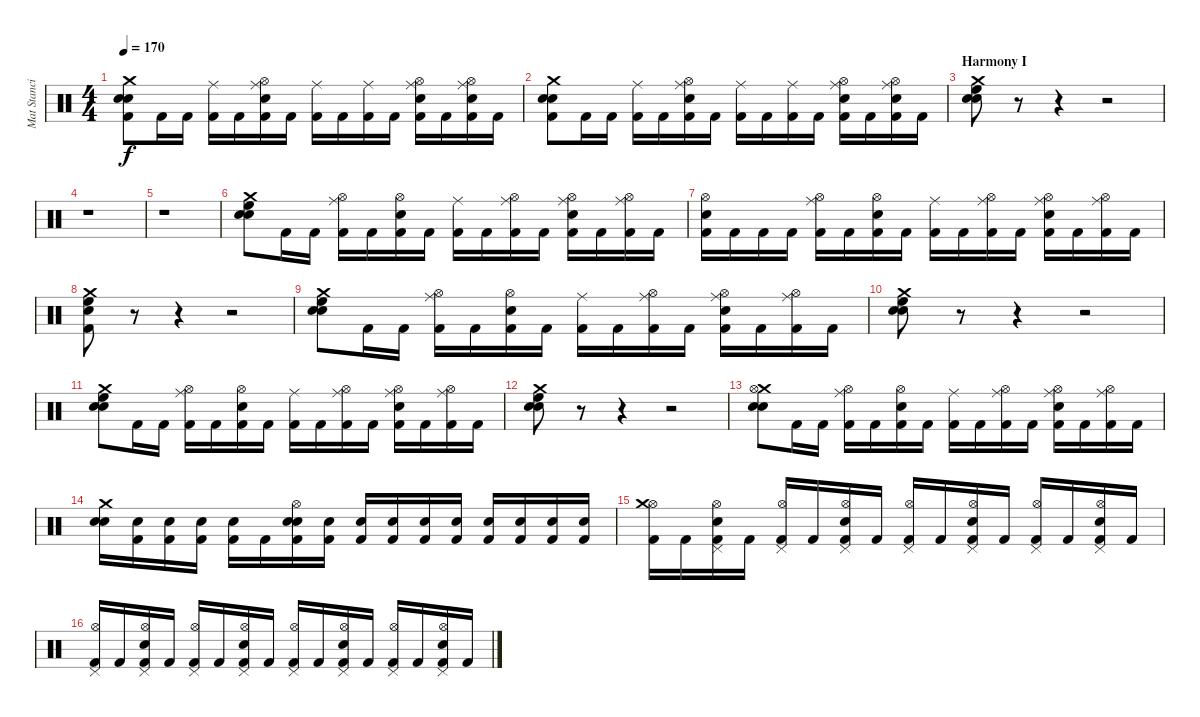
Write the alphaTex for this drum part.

\track ("Mat Stancioiu" "Mat Stanci") {instrument percussion}
\staff {score}
\articulation defaults
\ts (4 4)
\tempo 170
\clef neutral
\ks c
("Crash medium (hit)" "Kick (hit) 2" "Snare (hit)" "Electric Snare (hit)").8{dy f} "Kick (hit) 2".16 "Kick (hit) 2".16 ("Kick (hit) 2" "Ride (middle)").16 "Kick (hit) 2".16 ("Electric Snare (hit)" "Hi-Hat (open)" "Kick (hit) 2" "Ride (middle)").16 "Kick (hit) 2".16 ("Kick (hit) 2" "Ride (middle)").16 "Kick (hit) 2".16 ("Kick (hit) 2" "Ride (middle)").16 "Kick (hit) 2".16 ("Electric Snare (hit)" "Hi-Hat (open)" "Kick (hit) 2" "Ride (middle)").16 "Kick (hit) 2".16 ("Electric Snare (hit)" "Hi-Hat (open)" "Kick (hit) 2" "Ride (middle)").16 "Kick (hit) 2".16 |
("Crash medium (hit)" "Kick (hit) 2" "Snare (hit)" "Electric Snare (hit)").8 "Kick (hit) 2".16 "Kick (hit) 2".16 ("Kick (hit) 2" "Ride (middle)").16 "Kick (hit) 2".16 ("Electric Snare (hit)" "Hi-Hat (open)" "Kick (hit) 2" "Ride (middle)").16 "Kick (hit) 2".16 ("Kick (hit) 2" "Ride (middle)").16 "Kick (hit) 2".16 ("Kick (hit) 2" "Ride (middle)").16 "Kick (hit) 2".16 ("Electric Snare (hit)" "Hi-Hat (open)" "Kick (hit) 2" "Ride (middle)").16 "Kick (hit) 2".16 ("Electric Snare (hit)" "Hi-Hat (open)" "Kick (hit) 2" "Ride (middle)").16 "Kick (hit) 2".16 |
\section ("" "Harmony I")
("Crash medium (hit)" "High Floor Tom (hit)" "Snare (hit)" "Electric Snare (hit)").8 r.8 r.4 r.2 |
r.1 |
r.1 |
("Crash medium (hit)" "High Floor Tom (hit)" "Snare (hit)" "Electric Snare (hit)").8 "Kick (hit) 2".16 "Kick (hit) 2".16 ("Kick (hit) 2" "Hi-Hat (open)" "Ride (middle)").16 "Kick (hit) 2".16 ("Electric Snare (hit)" "Hi-Hat (open)" "Kick (hit) 2").16 "Kick (hit) 2".16 ("Kick (hit) 2" "Ride (middle)").16 "Kick (hit) 2".16 ("Kick (hit) 2" "Hi-Hat (open)" "Ride (middle)").16 "Kick (hit) 2".16 ("Electric Snare (hit)" "Hi-Hat (open)" "Kick (hit) 2" "Ride (middle)").16 "Kick (hit) 2".16 ("Kick (hit) 2" "Hi-Hat (open)" "Ride (middle)").16 "Kick (hit) 2".16 |
("Electric Snare (hit)" "Hi-Hat (open)" "Kick (hit) 2").16 "Kick (hit) 2".16 "Kick (hit) 2".16 "Kick (hit) 2".16 ("Kick (hit) 2" "Hi-Hat (open)" "Ride (middle)").16 "Kick (hit) 2".16 ("Electric Snare (hit)" "Hi-Hat (open)" "Kick (hit) 2").16 "Kick (hit) 2".16 ("Kick (hit) 2" "Ride (middle)").16 "Kick (hit) 2".16 ("Kick (hit) 2" "Hi-Hat (open)" "Ride (middle)").16 "Kick (hit) 2".16 ("Electric Snare (hit)" "Hi-Hat (open)" "Kick (hit) 2" "Ride (middle)").16 "Kick (hit) 2".16 ("Kick (hit) 2" "Hi-Hat (open)" "Ride (middle)").16 "Kick (hit) 2".16 |
("Electric Snare (hit)" "High Floor Tom (hit)" "Kick (hit) 2" "Crash medium (hit)").8 r.8 r.4 r.2 |
("Crash medium (hit)" "High Floor Tom (hit)" "Snare (hit)" "Electric Snare (hit)").8 "Kick (hit) 2".16 "Kick (hit) 2".16 ("Kick (hit) 2" "Hi-Hat (open)" "Ride (middle)").16 "Kick (hit) 2".16 ("Electric Snare (hit)" "Hi-Hat (open)" "Kick (hit) 2").16 "Kick (hit) 2".16 ("Kick (hit) 2" "Ride (middle)").16 "Kick (hit) 2".16 ("Kick (hit) 2" "Hi-Hat (open)" "Ride (middle)").16 "Kick (hit) 2".16 ("Electric Snare (hit)" "Hi-Hat (open)" "Kick (hit) 2" "Ride (middle)").16 "Kick (hit) 2".16 ("Kick (hit) 2" "Hi-Hat (open)" "Ride (middle)").16 "Kick (hit) 2".16 |
("Crash medium (hit)" "High Floor Tom (hit)" "Snare (hit)" "Electric Snare (hit)").8 r.8 r.4 r.2 |
("Crash medium (hit)" "High Floor Tom (hit)" "Snare (hit)" "Electric Snare (hit)").8 "Kick (hit) 2".16 "Kick (hit) 2".16 ("Kick (hit) 2" "Hi-Hat (open)" "Ride (middle)").16 "Kick (hit) 2".16 ("Electric Snare (hit)" "Hi-Hat (open)" "Kick (hit) 2").16 "Kick (hit) 2".16 ("Kick (hit) 2" "Ride (middle)").16 "Kick (hit) 2".16 ("Kick (hit) 2" "Hi-Hat (open)" "Ride (middle)").16 "Kick (hit) 2".16 ("Electric Snare (hit)" "Hi-Hat (open)" "Kick (hit) 2" "Ride (middle)").16 "Kick (hit) 2".16 ("Kick (hit) 2" "Hi-Hat (open)" "Ride (middle)").16 "Kick (hit) 2".16 |
("Crash medium (hit)" "High Floor Tom (hit)" "Snare (hit)" "Electric Snare (hit)").8 r.8 r.4 r.2 |
("Crash medium (hit)" "Hi-Hat (open)" "Snare (hit)" "Electric Snare (hit)").8 "Kick (hit) 2".16 "Kick (hit) 2".16 ("Kick (hit) 2" "Hi-Hat (open)" "Ride (middle)").16 "Kick (hit) 2".16 ("Electric Snare (hit)" "Hi-Hat (open)" "Kick (hit) 2").16 "Kick (hit) 2".16 ("Kick (hit) 2" "Ride (middle)").16 "Kick (hit) 2".16 ("Kick (hit) 2" "Hi-Hat (open)" "Ride (middle)").16 "Kick (hit) 2".16 ("Electric Snare (hit)" "Hi-Hat (open)" "Kick (hit) 2" "Ride (middle)").16 "Kick (hit) 2".16 ("Kick (hit) 2" "Hi-Hat (open)" "Ride (middle)").16 "Kick (hit) 2".16 |
("Electric Snare (hit)" "Crash medium (hit)" "Snare (hit)").16 ("Electric Snare (hit)" "Kick (hit) 2").16 ("Electric Snare (hit)" "Kick (hit) 2").16 ("Electric Snare (hit)" "Kick (hit) 2").16 ("Electric Snare (hit)" "Kick (hit) 2").16 "Kick (hit) 2".16 ("Electric Snare (hit)" "Kick (hit) 2" "Hi-Hat (open)" "Snare (hit)").16 ("Electric Snare (hit)" "Kick (hit) 2").16 ("Electric Snare (hit)" "Kick (hit) 2").16 ("Electric Snare (hit)" "Kick (hit) 2").16 ("Electric Snare (hit)" "Kick (hit) 2").16 ("Electric Snare (hit)" "Kick (hit) 2").16 ("Electric Snare (hit)" "Kick (hit) 2").16 ("Electric Snare (hit)" "Kick (hit) 2").16 ("Electric Snare (hit)" "Kick (hit) 2").16 ("Electric Snare (hit)" "Kick (hit) 2").16 |
("Hi-Hat (open)" "Kick (hit) 2" "Crash medium (hit)").16 "Kick (hit) 2".16 ("Electric Snare (hit)" "Hi-Hat (open)" "Kick (hit) 2" "Pedal Hi-Hat (hit)").16 "Kick (hit) 2".16 ("Hi-Hat (open)" "Kick (hit) 2" "Pedal Hi-Hat (hit)").16 "Kick (hit) 2".16 ("Electric Snare (hit)" "Hi-Hat (open)" "Kick (hit) 2" "Pedal Hi-Hat (hit)").16 "Kick (hit) 2".16 ("Hi-Hat (open)" "Kick (hit) 2" "Pedal Hi-Hat (hit)").16 "Kick (hit) 2".16 ("Electric Snare (hit)" "Hi-Hat (open)" "Kick (hit) 2" "Pedal Hi-Hat (hit)").16 "Kick (hit) 2".16 ("Hi-Hat (open)" "Kick (hit) 2" "Pedal Hi-Hat (hit)").16 "Kick (hit) 2".16 ("Electric Snare (hit)" "Hi-Hat (open)" "Kick (hit) 2" "Pedal Hi-Hat (hit)").16 "Kick (hit) 2".16 |
("Hi-Hat (open)" "Kick (hit) 2" "Pedal Hi-Hat (hit)").16 "Kick (hit) 2".16 ("Electric Snare (hit)" "Hi-Hat (open)" "Kick (hit) 2" "Pedal Hi-Hat (hit)").16 "Kick (hit) 2".16 ("Hi-Hat (open)" "Kick (hit) 2" "Pedal Hi-Hat (hit)").16 "Kick (hit) 2".16 ("Electric Snare (hit)" "Hi-Hat (open)" "Kick (hit) 2" "Pedal Hi-Hat (hit)").16 "Kick (hit) 2".16 ("Hi-Hat (open)" "Kick (hit) 2" "Pedal Hi-Hat (hit)").16 "Kick (hit) 2".16 ("Electric Snare (hit)" "Hi-Hat (open)" "Kick (hit) 2" "Pedal Hi-Hat (hit)").16 "Kick (hit) 2".16 ("Hi-Hat (open)" "Kick (hit) 2" "Pedal Hi-Hat (hit)").16 "Kick (hit) 2".16 ("Electric Snare (hit)" "Hi-Hat (open)" "Kick (hit) 2" "Pedal Hi-Hat (hit)").16 "Kick (hit) 2".16
